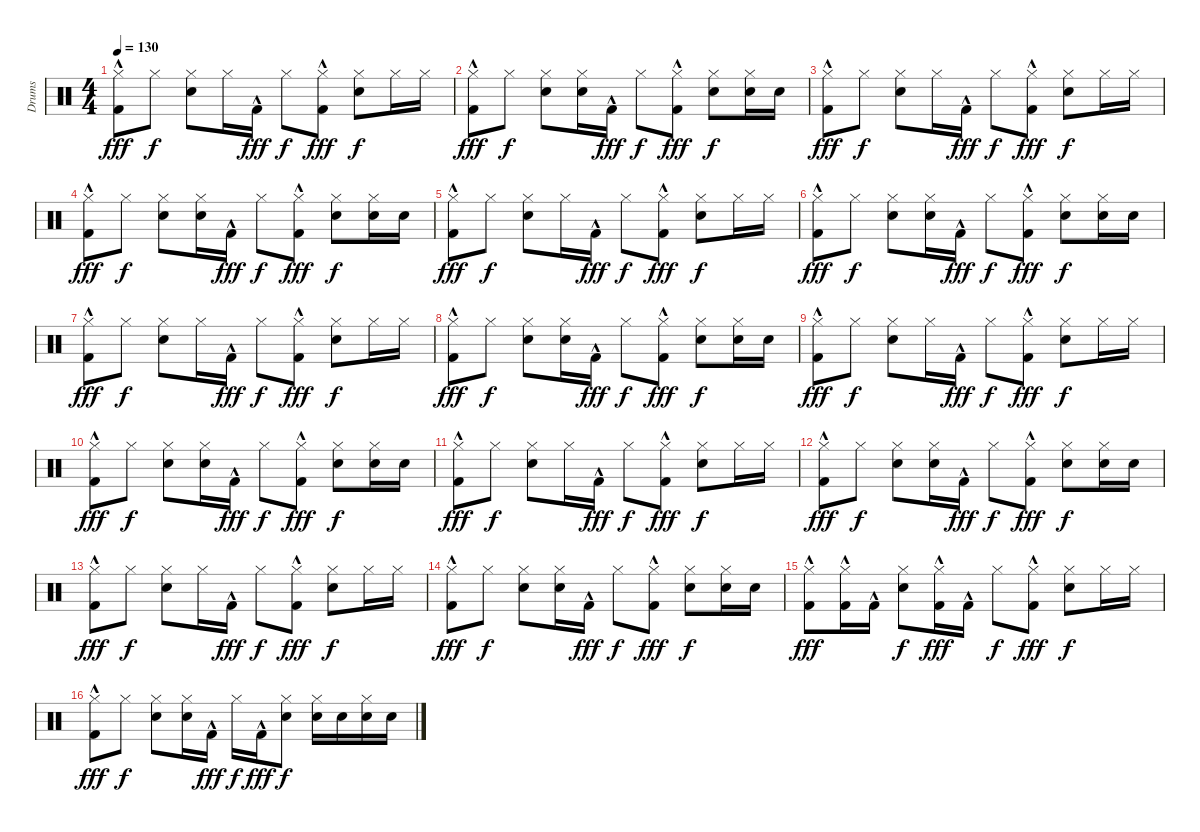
\track ("Drums" "Drums") {instrument percussion}
\staff {score}
\articulation defaults
\ts (4 4)
\tempo 130
\clef neutral
\ks c
("Hi-Hat (closed)" "Kick (hit) 2"{hac}).8{dy fff} "Hi-Hat (closed)".8{dy f} ("Hi-Hat (closed)" "Snare (hit) 2").8 "Hi-Hat (closed)".16 "Kick (hit) 2"{hac}.16{dy fff} "Hi-Hat (closed)".8{dy f} ("Hi-Hat (closed)" "Kick (hit) 2"{hac}).8{dy fff} ("Hi-Hat (closed)" "Snare (hit) 2").8{dy f} "Hi-Hat (closed)".16 "Hi-Hat (closed)".16 |
("Hi-Hat (closed)" "Kick (hit) 2"{hac}).8{dy fff} "Hi-Hat (closed)".8{dy f} ("Hi-Hat (closed)" "Snare (hit) 2").8 ("Hi-Hat (closed)" "Snare (hit) 2").16 "Kick (hit) 2"{hac}.16{dy fff} "Hi-Hat (closed)".8{dy f} ("Hi-Hat (closed)" "Kick (hit) 2"{hac}).8{dy fff} ("Hi-Hat (closed)" "Snare (hit) 2").8{dy f} ("Hi-Hat (closed)" "Snare (hit) 2").16 "Snare (hit) 2".16 |
("Hi-Hat (closed)" "Kick (hit) 2"{hac}).8{dy fff} "Hi-Hat (closed)".8{dy f} ("Hi-Hat (closed)" "Snare (hit) 2").8 "Hi-Hat (closed)".16 "Kick (hit) 2"{hac}.16{dy fff} "Hi-Hat (closed)".8{dy f} ("Hi-Hat (closed)" "Kick (hit) 2"{hac}).8{dy fff} ("Hi-Hat (closed)" "Snare (hit) 2").8{dy f} "Hi-Hat (closed)".16 "Hi-Hat (closed)".16 |
("Hi-Hat (closed)" "Kick (hit) 2"{hac}).8{dy fff} "Hi-Hat (closed)".8{dy f} ("Hi-Hat (closed)" "Snare (hit) 2").8 ("Hi-Hat (closed)" "Snare (hit) 2").16 "Kick (hit) 2"{hac}.16{dy fff} "Hi-Hat (closed)".8{dy f} ("Hi-Hat (closed)" "Kick (hit) 2"{hac}).8{dy fff} ("Hi-Hat (closed)" "Snare (hit) 2").8{dy f} ("Hi-Hat (closed)" "Snare (hit) 2").16 "Snare (hit) 2".16 |
("Hi-Hat (closed)" "Kick (hit) 2"{hac}).8{dy fff} "Hi-Hat (closed)".8{dy f} ("Hi-Hat (closed)" "Snare (hit) 2").8 "Hi-Hat (closed)".16 "Kick (hit) 2"{hac}.16{dy fff} "Hi-Hat (closed)".8{dy f} ("Hi-Hat (closed)" "Kick (hit) 2"{hac}).8{dy fff} ("Hi-Hat (closed)" "Snare (hit) 2").8{dy f} "Hi-Hat (closed)".16 "Hi-Hat (closed)".16 |
("Hi-Hat (closed)" "Kick (hit) 2"{hac}).8{dy fff} "Hi-Hat (closed)".8{dy f} ("Hi-Hat (closed)" "Snare (hit) 2").8 ("Hi-Hat (closed)" "Snare (hit) 2").16 "Kick (hit) 2"{hac}.16{dy fff} "Hi-Hat (closed)".8{dy f} ("Hi-Hat (closed)" "Kick (hit) 2"{hac}).8{dy fff} ("Hi-Hat (closed)" "Snare (hit) 2").8{dy f} ("Hi-Hat (closed)" "Snare (hit) 2").16 "Snare (hit) 2".16 |
("Hi-Hat (closed)" "Kick (hit) 2"{hac}).8{dy fff} "Hi-Hat (closed)".8{dy f} ("Hi-Hat (closed)" "Snare (hit) 2").8 "Hi-Hat (closed)".16 "Kick (hit) 2"{hac}.16{dy fff} "Hi-Hat (closed)".8{dy f} ("Hi-Hat (closed)" "Kick (hit) 2"{hac}).8{dy fff} ("Hi-Hat (closed)" "Snare (hit) 2").8{dy f} "Hi-Hat (closed)".16 "Hi-Hat (closed)".16 |
("Hi-Hat (closed)" "Kick (hit) 2"{hac}).8{dy fff} "Hi-Hat (closed)".8{dy f} ("Hi-Hat (closed)" "Snare (hit) 2").8 ("Hi-Hat (closed)" "Snare (hit) 2").16 "Kick (hit) 2"{hac}.16{dy fff} "Hi-Hat (closed)".8{dy f} ("Hi-Hat (closed)" "Kick (hit) 2"{hac}).8{dy fff} ("Hi-Hat (closed)" "Snare (hit) 2").8{dy f} ("Hi-Hat (closed)" "Snare (hit) 2").16 "Snare (hit) 2".16 |
("Hi-Hat (closed)" "Kick (hit) 2"{hac}).8{dy fff} "Hi-Hat (closed)".8{dy f} ("Hi-Hat (closed)" "Snare (hit) 2").8 "Hi-Hat (closed)".16 "Kick (hit) 2"{hac}.16{dy fff} "Hi-Hat (closed)".8{dy f} ("Hi-Hat (closed)" "Kick (hit) 2"{hac}).8{dy fff} ("Hi-Hat (closed)" "Snare (hit) 2").8{dy f} "Hi-Hat (closed)".16 "Hi-Hat (closed)".16 |
("Hi-Hat (closed)" "Kick (hit) 2"{hac}).8{dy fff} "Hi-Hat (closed)".8{dy f} ("Hi-Hat (closed)" "Snare (hit) 2").8 ("Hi-Hat (closed)" "Snare (hit) 2").16 "Kick (hit) 2"{hac}.16{dy fff} "Hi-Hat (closed)".8{dy f} ("Hi-Hat (closed)" "Kick (hit) 2"{hac}).8{dy fff} ("Hi-Hat (closed)" "Snare (hit) 2").8{dy f} ("Hi-Hat (closed)" "Snare (hit) 2").16 "Snare (hit) 2".16 |
("Hi-Hat (closed)" "Kick (hit) 2"{hac}).8{dy fff} "Hi-Hat (closed)".8{dy f} ("Hi-Hat (closed)" "Snare (hit) 2").8 "Hi-Hat (closed)".16 "Kick (hit) 2"{hac}.16{dy fff} "Hi-Hat (closed)".8{dy f} ("Hi-Hat (closed)" "Kick (hit) 2"{hac}).8{dy fff} ("Hi-Hat (closed)" "Snare (hit) 2").8{dy f} "Hi-Hat (closed)".16 "Hi-Hat (closed)".16 |
("Hi-Hat (closed)" "Kick (hit) 2"{hac}).8{dy fff} "Hi-Hat (closed)".8{dy f} ("Hi-Hat (closed)" "Snare (hit) 2").8 ("Hi-Hat (closed)" "Snare (hit) 2").16 "Kick (hit) 2"{hac}.16{dy fff} "Hi-Hat (closed)".8{dy f} ("Hi-Hat (closed)" "Kick (hit) 2"{hac}).8{dy fff} ("Hi-Hat (closed)" "Snare (hit) 2").8{dy f} ("Hi-Hat (closed)" "Snare (hit) 2").16 "Snare (hit) 2".16 |
("Hi-Hat (closed)" "Kick (hit) 2"{hac}).8{dy fff} "Hi-Hat (closed)".8{dy f} ("Hi-Hat (closed)" "Snare (hit) 2").8 "Hi-Hat (closed)".16 "Kick (hit) 2"{hac}.16{dy fff} "Hi-Hat (closed)".8{dy f} ("Hi-Hat (closed)" "Kick (hit) 2"{hac}).8{dy fff} ("Hi-Hat (closed)" "Snare (hit) 2").8{dy f} "Hi-Hat (closed)".16 "Hi-Hat (closed)".16 |
("Hi-Hat (closed)" "Kick (hit) 2"{hac}).8{dy fff} "Hi-Hat (closed)".8{dy f} ("Hi-Hat (closed)" "Snare (hit) 2").8 ("Hi-Hat (closed)" "Snare (hit) 2").16 "Kick (hit) 2"{hac}.16{dy fff} "Hi-Hat (closed)".8{dy f} ("Hi-Hat (closed)" "Kick (hit) 2"{hac}).8{dy fff} ("Hi-Hat (closed)" "Snare (hit) 2").8{dy f} ("Hi-Hat (closed)" "Snare (hit) 2").16 "Snare (hit) 2".16 |
("Hi-Hat (closed)" "Kick (hit) 2"{hac}).8{dy fff} ("Hi-Hat (closed)" "Kick (hit) 2"{hac}).16 "Kick (hit) 2"{hac}.16 ("Hi-Hat (closed)" "Snare (hit) 2").8{dy f} ("Hi-Hat (closed)" "Kick (hit) 2"{hac}).16{dy fff} "Kick (hit) 2"{hac}.16 "Hi-Hat (closed)".8{dy f} ("Hi-Hat (closed)" "Kick (hit) 2"{hac}).8{dy fff} ("Hi-Hat (closed)" "Snare (hit) 2").8{dy f} "Hi-Hat (closed)".16 "Hi-Hat (closed)".16 |
("Hi-Hat (closed)" "Kick (hit) 2"{hac}).8{dy fff} "Hi-Hat (closed)".8{dy f} ("Hi-Hat (closed)" "Snare (hit) 2").8 ("Hi-Hat (closed)" "Snare (hit) 2").16 "Kick (hit) 2"{hac}.16{dy fff} "Hi-Hat (closed)".16{dy f} "Kick (hit) 2"{hac}.16{dy fff} ("Hi-Hat (closed)" "Snare (hit) 2").8{dy f} ("Hi-Hat (closed)" "Snare (hit) 2").16 "Snare (hit) 2".16 ("Hi-Hat (closed)" "Snare (hit) 2").16 "Snare (hit) 2".16
